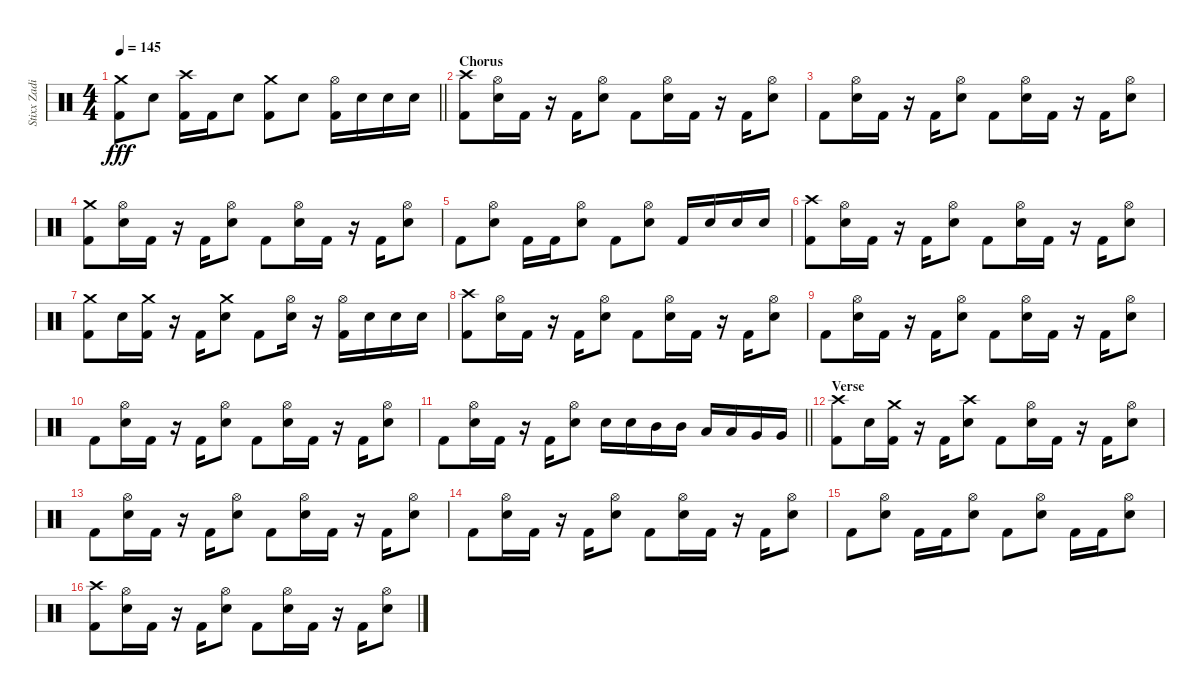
\track ("Stixx Zadina (Sticks it in ya)" "Stixx Zadi") {instrument percussion}
\staff {score}
\articulation defaults
\ts (4 4)
\tempo 145
\clef neutral
\barLineRight lightlight
\ks c
("Crash medium (hit)" "Kick (hit) 2").8{dy fff} "Electric Snare (hit)".8 ("Crash high (hit)" "Kick (hit) 2").16 "Kick (hit) 2".16 "Electric Snare (hit)".8 ("Crash medium (hit)" "Kick (hit) 2").8 "Electric Snare (hit)".8 ("Hi-Hat (open)" "Kick (hit) 2").16 "Electric Snare (hit)".16 "Electric Snare (hit)".16 "Electric Snare (hit)".16 |
\section ("" "Chorus")
("Crash high (hit)" "Kick (hit) 2").8 ("Hi-Hat (open)" "Electric Snare (hit)").16 "Kick (hit) 2".16 r.16 "Kick (hit) 2".16 ("Hi-Hat (open)" "Electric Snare (hit)").8 "Kick (hit) 2".8 ("Hi-Hat (open)" "Electric Snare (hit)").16 "Kick (hit) 2".16 r.16 "Kick (hit) 2".16 ("Hi-Hat (open)" "Electric Snare (hit)").8 |
"Kick (hit) 2".8 ("Hi-Hat (open)" "Electric Snare (hit)").16 "Kick (hit) 2".16 r.16 "Kick (hit) 2".16 ("Hi-Hat (open)" "Electric Snare (hit)").8 "Kick (hit) 2".8 ("Hi-Hat (open)" "Electric Snare (hit)").16 "Kick (hit) 2".16 r.16 "Kick (hit) 2".16 ("Hi-Hat (open)" "Electric Snare (hit)").8 |
("Crash medium (hit)" "Kick (hit) 2").8 ("Hi-Hat (open)" "Electric Snare (hit)").16 "Kick (hit) 2".16 r.16 "Kick (hit) 2".16 ("Hi-Hat (open)" "Electric Snare (hit)").8 "Kick (hit) 2".8 ("Hi-Hat (open)" "Electric Snare (hit)").16 "Kick (hit) 2".16 r.16 "Kick (hit) 2".16 ("Hi-Hat (open)" "Electric Snare (hit)").8 |
"Kick (hit) 2".8 ("Hi-Hat (open)" "Electric Snare (hit)").8 "Kick (hit) 2".16 "Kick (hit) 2".16 ("Hi-Hat (open)" "Electric Snare (hit)").8 "Kick (hit) 2".8 ("Hi-Hat (open)" "Electric Snare (hit)").8 "Kick (hit) 2".16 "Electric Snare (hit)".16 "Electric Snare (hit)".16 "Electric Snare (hit)".16 |
("Crash high (hit)" "Kick (hit) 2").8 ("Hi-Hat (open)" "Electric Snare (hit)").16 "Kick (hit) 2".16 r.16 "Kick (hit) 2".16 ("Hi-Hat (open)" "Electric Snare (hit)").8 "Kick (hit) 2".8 ("Hi-Hat (open)" "Electric Snare (hit)").16 "Kick (hit) 2".16 r.16 "Kick (hit) 2".16 ("Hi-Hat (open)" "Electric Snare (hit)").8 |
("Crash medium (hit)" "Kick (hit) 2").8 "Electric Snare (hit)".16 ("Crash medium (hit)" "Kick (hit) 2").16 r.16 "Kick (hit) 2".16 ("Crash medium (hit)" "Electric Snare (hit)").8 "Kick (hit) 2".8 ("Hi-Hat (open)" "Electric Snare (hit)").16 r.16 ("Hi-Hat (open)" "Kick (hit) 2").16 "Electric Snare (hit)".16 "Electric Snare (hit)".16 "Electric Snare (hit)".16 |
("Crash high (hit)" "Kick (hit) 2").8 ("Hi-Hat (open)" "Electric Snare (hit)").16 "Kick (hit) 2".16 r.16 "Kick (hit) 2".16 ("Hi-Hat (open)" "Electric Snare (hit)").8 "Kick (hit) 2".8 ("Hi-Hat (open)" "Electric Snare (hit)").16 "Kick (hit) 2".16 r.16 "Kick (hit) 2".16 ("Hi-Hat (open)" "Electric Snare (hit)").8 |
"Kick (hit) 2".8 ("Hi-Hat (open)" "Electric Snare (hit)").16 "Kick (hit) 2".16 r.16 "Kick (hit) 2".16 ("Hi-Hat (open)" "Electric Snare (hit)").8 "Kick (hit) 2".8 ("Hi-Hat (open)" "Electric Snare (hit)").16 "Kick (hit) 2".16 r.16 "Kick (hit) 2".16 ("Hi-Hat (open)" "Electric Snare (hit)").8 |
"Kick (hit) 2".8 ("Hi-Hat (open)" "Electric Snare (hit)").16 "Kick (hit) 2".16 r.16 "Kick (hit) 2".16 ("Hi-Hat (open)" "Electric Snare (hit)").8 "Kick (hit) 2".8 ("Hi-Hat (open)" "Electric Snare (hit)").16 "Kick (hit) 2".16 r.16 "Kick (hit) 2".16 ("Hi-Hat (open)" "Electric Snare (hit)").8 |
\barLineRight lightlight "Kick (hit) 2".8
("Hi-Hat (open)" "Electric Snare (hit)").16 "Kick (hit) 2".16 r.16 "Kick (hit) 2".16 ("Hi-Hat (open)" "Electric Snare (hit)").8 "Electric Snare (hit)".16 "Electric Snare (hit)".16 "Mid Tom (hit)".16 "Mid Tom (hit)".16 "Low Tom (hit)".16 "Low Tom (hit)".16 "Very Low Tom (hit)".16 "Very Low Tom (hit)".16 |
\section ("" "Verse")
("Crash high (hit)" "Kick (hit) 2").8 "Electric Snare (hit)".16 ("Crash medium (hit)" "Kick (hit) 2").16 r.16 "Kick (hit) 2".16 ("Crash high (hit)" "Electric Snare (hit)").8 "Kick (hit) 2".8 ("Hi-Hat (open)" "Electric Snare (hit)").16 "Kick (hit) 2".16 r.16 "Kick (hit) 2".16 ("Hi-Hat (open)" "Electric Snare (hit)").8 |
"Kick (hit) 2".8 ("Hi-Hat (open)" "Electric Snare (hit)").16 "Kick (hit) 2".16 r.16 "Kick (hit) 2".16 ("Hi-Hat (open)" "Electric Snare (hit)").8 "Kick (hit) 2".8 ("Hi-Hat (open)" "Electric Snare (hit)").16 "Kick (hit) 2".16 r.16 "Kick (hit) 2".16 ("Hi-Hat (open)" "Electric Snare (hit)").8 |
"Kick (hit) 2".8 ("Hi-Hat (open)" "Electric Snare (hit)").16 "Kick (hit) 2".16 r.16 "Kick (hit) 2".16 ("Hi-Hat (open)" "Electric Snare (hit)").8 "Kick (hit) 2".8 ("Hi-Hat (open)" "Electric Snare (hit)").16 "Kick (hit) 2".16 r.16 "Kick (hit) 2".16 ("Hi-Hat (open)" "Electric Snare (hit)").8 |
"Kick (hit) 2".8 ("Hi-Hat (open)" "Electric Snare (hit)").8 "Kick (hit) 2".16 "Kick (hit) 2".16 ("Hi-Hat (open)" "Electric Snare (hit)").8 "Kick (hit) 2".8 ("Hi-Hat (open)" "Electric Snare (hit)").8 "Kick (hit) 2".16 "Kick (hit) 2".16 ("Hi-Hat (open)" "Electric Snare (hit)").8 |
("Crash high (hit)" "Kick (hit) 2").8 ("Hi-Hat (open)" "Electric Snare (hit)").16 "Kick (hit) 2".16 r.16 "Kick (hit) 2".16 ("Hi-Hat (open)" "Electric Snare (hit)").8 "Kick (hit) 2".8 ("Hi-Hat (open)" "Electric Snare (hit)").16 "Kick (hit) 2".16 r.16 "Kick (hit) 2".16 ("Hi-Hat (open)" "Electric Snare (hit)").8
